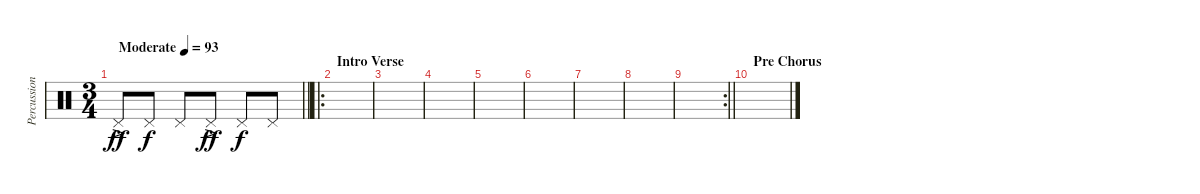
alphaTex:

\track ("Percussion" "Percussion") {instrument percussion}
\staff {score}
\articulation defaults
\ts (3 4)
\tempo (93 "Moderate")
\clef neutral
\barLineRight lightlight
\ks c "Pedal Hi-Hat (hit)"{ac}.8{dy ff} "Pedal Hi-Hat (hit)".8{dy f} "Pedal Hi-Hat (hit)".8 "Pedal Hi-Hat (hit)"{ac}.8{dy ff} "Pedal Hi-Hat (hit)".8{dy f} "Pedal Hi-Hat (hit)".8
|
\ro
\section ("" "Intro Verse")
|
|
|
|
|
|
|
\rc 2
\barLineRight lightlight
|
\section ("" "Pre Chorus")
